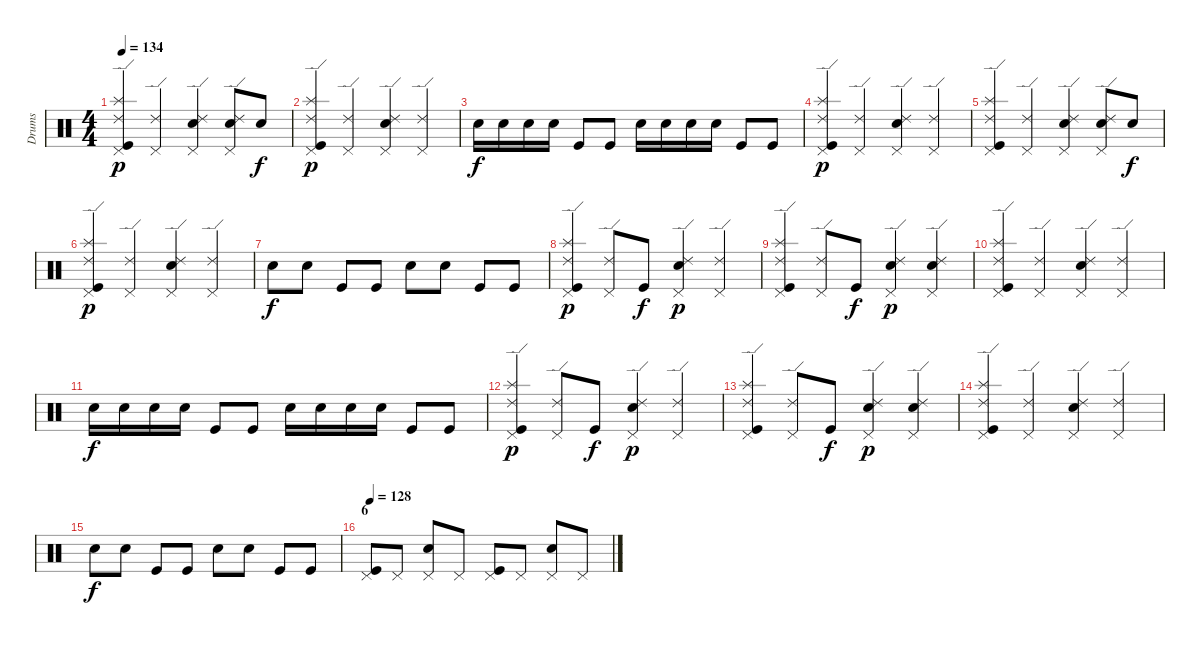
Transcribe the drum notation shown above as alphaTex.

\track ("Drums" "Drums") {instrument percussion}
\staff {score}
\articulation defaults
\ts (4 4)
\tempo 134
\clef neutral
\ks c
("Pedal Hi-Hat (hit)" "Kick (hit)" "Splash (hit)" "Ride (edge) 2").4{dy p} ("Pedal Hi-Hat (hit)" "Ride (edge) 2").4 ("Pedal Hi-Hat (hit)" "Electric Snare (hit)" "Ride (edge) 2").4 ("Pedal Hi-Hat (hit)" "Electric Snare (hit)" "Ride (edge) 2").8 "Electric Snare (hit)".8{dy f} |
("Pedal Hi-Hat (hit)" "Kick (hit)" "Splash (hit)" "Ride (edge) 2").4{dy p} ("Pedal Hi-Hat (hit)" "Ride (edge) 2").4 ("Pedal Hi-Hat (hit)" "Electric Snare (hit)" "Ride (edge) 2").4 ("Pedal Hi-Hat (hit)" "Ride (edge) 2").4 |
"Electric Snare (hit)".16{dy f} "Electric Snare (hit)".16 "Electric Snare (hit)".16 "Electric Snare (hit)".16 "Kick (hit)".8 "Kick (hit)".8 "Electric Snare (hit)".16 "Electric Snare (hit)".16 "Electric Snare (hit)".16 "Electric Snare (hit)".16 "Kick (hit)".8 "Kick (hit)".8 |
("Pedal Hi-Hat (hit)" "Kick (hit)" "Splash (hit)" "Ride (edge) 2").4{dy p} ("Pedal Hi-Hat (hit)" "Ride (edge) 2").4 ("Pedal Hi-Hat (hit)" "Electric Snare (hit)" "Ride (edge) 2").4 ("Pedal Hi-Hat (hit)" "Ride (edge) 2").4 |
("Pedal Hi-Hat (hit)" "Kick (hit)" "Splash (hit)" "Ride (edge) 2").4 ("Pedal Hi-Hat (hit)" "Ride (edge) 2").4 ("Pedal Hi-Hat (hit)" "Electric Snare (hit)" "Ride (edge) 2").4 ("Pedal Hi-Hat (hit)" "Electric Snare (hit)" "Ride (edge) 2").8 "Electric Snare (hit)".8{dy f} |
("Pedal Hi-Hat (hit)" "Kick (hit)" "Splash (hit)" "Ride (edge) 2").4{dy p} ("Pedal Hi-Hat (hit)" "Ride (edge) 2").4 ("Pedal Hi-Hat (hit)" "Electric Snare (hit)" "Ride (edge) 2").4 ("Pedal Hi-Hat (hit)" "Ride (edge) 2").4 |
"Electric Snare (hit)".8{dy f} "Electric Snare (hit)".8 "Kick (hit)".8 "Kick (hit)".8 "Electric Snare (hit)".8 "Electric Snare (hit)".8 "Kick (hit)".8 "Kick (hit)".8 |
("Pedal Hi-Hat (hit)" "Kick (hit)" "Splash (hit)" "Ride (edge) 2").4{dy p} ("Pedal Hi-Hat (hit)" "Ride (edge) 2").8 "Kick (hit)".8{dy f} ("Pedal Hi-Hat (hit)" "Electric Snare (hit)" "Ride (edge) 2").4{dy p} ("Pedal Hi-Hat (hit)" "Ride (edge) 2").4 |
("Pedal Hi-Hat (hit)" "Kick (hit)" "Splash (hit)" "Ride (edge) 2").4 ("Pedal Hi-Hat (hit)" "Ride (edge) 2").8 "Kick (hit)".8{dy f} ("Pedal Hi-Hat (hit)" "Electric Snare (hit)" "Ride (edge) 2").4{dy p} ("Pedal Hi-Hat (hit)" "Electric Snare (hit)" "Ride (edge) 2").4 |
("Pedal Hi-Hat (hit)" "Kick (hit)" "Splash (hit)" "Ride (edge) 2").4 ("Pedal Hi-Hat (hit)" "Ride (edge) 2").4 ("Pedal Hi-Hat (hit)" "Electric Snare (hit)" "Ride (edge) 2").4 ("Pedal Hi-Hat (hit)" "Ride (edge) 2").4 |
"Electric Snare (hit)".16{dy f} "Electric Snare (hit)".16 "Electric Snare (hit)".16 "Electric Snare (hit)".16 "Kick (hit)".8 "Kick (hit)".8 "Electric Snare (hit)".16 "Electric Snare (hit)".16 "Electric Snare (hit)".16 "Electric Snare (hit)".16 "Kick (hit)".8 "Kick (hit)".8 |
("Pedal Hi-Hat (hit)" "Kick (hit)" "Splash (hit)" "Ride (edge) 2").4{dy p} ("Pedal Hi-Hat (hit)" "Ride (edge) 2").8 "Kick (hit)".8{dy f} ("Pedal Hi-Hat (hit)" "Electric Snare (hit)" "Ride (edge) 2").4{dy p} ("Pedal Hi-Hat (hit)" "Ride (edge) 2").4 |
("Pedal Hi-Hat (hit)" "Kick (hit)" "Splash (hit)" "Ride (edge) 2").4 ("Pedal Hi-Hat (hit)" "Ride (edge) 2").8 "Kick (hit)".8{dy f} ("Pedal Hi-Hat (hit)" "Electric Snare (hit)" "Ride (edge) 2").4{dy p} ("Pedal Hi-Hat (hit)" "Electric Snare (hit)" "Ride (edge) 2").4 |
("Pedal Hi-Hat (hit)" "Kick (hit)" "Splash (hit)" "Ride (edge) 2").4 ("Pedal Hi-Hat (hit)" "Ride (edge) 2").4 ("Pedal Hi-Hat (hit)" "Electric Snare (hit)" "Ride (edge) 2").4 ("Pedal Hi-Hat (hit)" "Ride (edge) 2").4 |
"Electric Snare (hit)".8{dy f} "Electric Snare (hit)".8 "Kick (hit)".8 "Kick (hit)".8 "Electric Snare (hit)".8 "Electric Snare (hit)".8 "Kick (hit)".8 "Kick (hit)".8 |
\section ("" "6")
\tempo 128
("Pedal Hi-Hat (hit)" "Kick (hit)").8 "Pedal Hi-Hat (hit)".8 ("Pedal Hi-Hat (hit)" "Electric Snare (hit)").8 "Pedal Hi-Hat (hit)".8 ("Pedal Hi-Hat (hit)" "Kick (hit)").8 "Pedal Hi-Hat (hit)".8 ("Pedal Hi-Hat (hit)" "Electric Snare (hit)").8 "Pedal Hi-Hat (hit)".8
